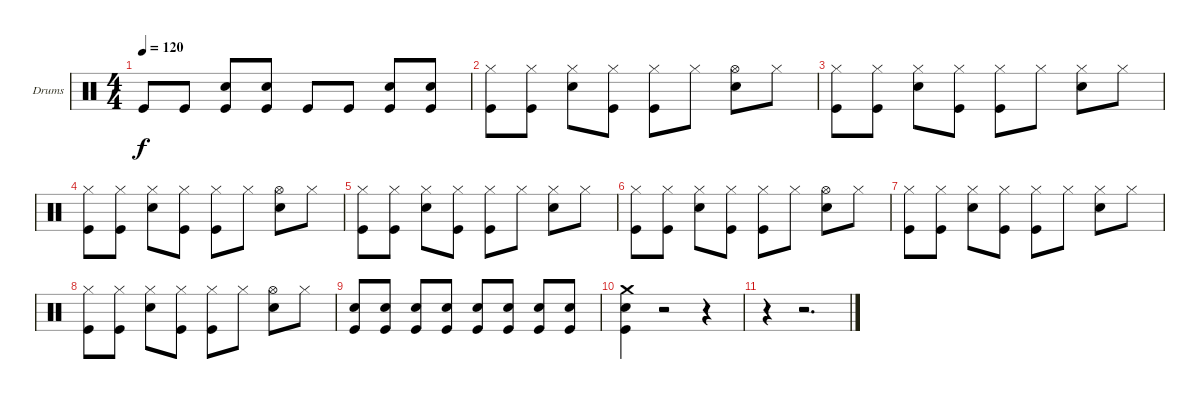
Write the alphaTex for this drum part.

\bracketExtendMode groupsimilarinstruments
\firstSystemTrackNameOrientation horizontal
\otherSystemsTrackNameOrientation horizontal
\track ("Drumkit" "Drums") {instrument percussion}
\staff {score}
\articulation defaults
\ts (4 4)
\tempo 120
\clef neutral
\ks c "Kick (hit)".8{dy f} "Kick (hit)".8
("Kick (hit)" "Snare (hit) 2").8 ("Kick (hit)" "Snare (hit) 2").8 "Kick (hit)".8 "Kick (hit)".8 ("Kick (hit)" "Snare (hit) 2").8 ("Kick (hit)" "Snare (hit) 2").8 |
("Kick (hit)" "Hi-Hat (closed)").8 ("Kick (hit)" "Hi-Hat (closed)").8 ("Snare (hit) 2" "Hi-Hat (closed)").8 ("Kick (hit)" "Hi-Hat (closed)").8 ("Kick (hit)" "Hi-Hat (closed)").8 "Hi-Hat (closed)".8 ("Snare (hit) 2" "Hi-Hat (open)").8 "Hi-Hat (closed)".8 |
("Kick (hit)" "Hi-Hat (closed)").8 ("Kick (hit)" "Hi-Hat (closed)").8 ("Snare (hit) 2" "Hi-Hat (closed)").8 ("Kick (hit)" "Hi-Hat (closed)").8 ("Kick (hit)" "Hi-Hat (closed)").8 "Hi-Hat (closed)".8 ("Snare (hit) 2" "Hi-Hat (closed)").8 "Hi-Hat (closed)".8 |
("Kick (hit)" "Hi-Hat (closed)").8 ("Kick (hit)" "Hi-Hat (closed)").8 ("Snare (hit) 2" "Hi-Hat (closed)").8 ("Kick (hit)" "Hi-Hat (closed)").8 ("Kick (hit)" "Hi-Hat (closed)").8 "Hi-Hat (closed)".8 ("Snare (hit) 2" "Hi-Hat (open)").8 "Hi-Hat (closed)".8 |
("Kick (hit)" "Hi-Hat (closed)").8 ("Kick (hit)" "Hi-Hat (closed)").8 ("Snare (hit) 2" "Hi-Hat (closed)").8 ("Kick (hit)" "Hi-Hat (closed)").8 ("Kick (hit)" "Hi-Hat (closed)").8 "Hi-Hat (closed)".8 ("Snare (hit) 2" "Hi-Hat (closed)").8 "Hi-Hat (closed)".8 |
("Kick (hit)" "Hi-Hat (closed)").8 ("Kick (hit)" "Hi-Hat (closed)").8 ("Snare (hit) 2" "Hi-Hat (closed)").8 ("Kick (hit)" "Hi-Hat (closed)").8 ("Kick (hit)" "Hi-Hat (closed)").8 "Hi-Hat (closed)".8 ("Snare (hit) 2" "Hi-Hat (open)").8 "Hi-Hat (closed)".8 |
("Kick (hit)" "Hi-Hat (closed)").8 ("Kick (hit)" "Hi-Hat (closed)").8 ("Snare (hit) 2" "Hi-Hat (closed)").8 ("Kick (hit)" "Hi-Hat (closed)").8 ("Kick (hit)" "Hi-Hat (closed)").8 "Hi-Hat (closed)".8 ("Snare (hit) 2" "Hi-Hat (closed)").8 "Hi-Hat (closed)".8 |
("Kick (hit)" "Hi-Hat (closed)").8 ("Kick (hit)" "Hi-Hat (closed)").8 ("Snare (hit) 2" "Hi-Hat (closed)").8 ("Kick (hit)" "Hi-Hat (closed)").8 ("Kick (hit)" "Hi-Hat (closed)").8 "Hi-Hat (closed)".8 ("Snare (hit) 2" "Hi-Hat (open)").8 "Hi-Hat (closed)".8 |
("Kick (hit)" "Snare (hit) 2").8 ("Kick (hit)" "Snare (hit) 2").8 ("Kick (hit)" "Snare (hit) 2").8 ("Kick (hit)" "Snare (hit) 2").8 ("Kick (hit)" "Snare (hit) 2").8 ("Kick (hit)" "Snare (hit) 2").8 ("Kick (hit)" "Snare (hit) 2").8 ("Kick (hit)" "Snare (hit) 2").8 |
("Crash medium (hit)" "Snare (hit) 2" "Kick (hit)").4 r.2 r.4 |
r.4 r.2{d}
